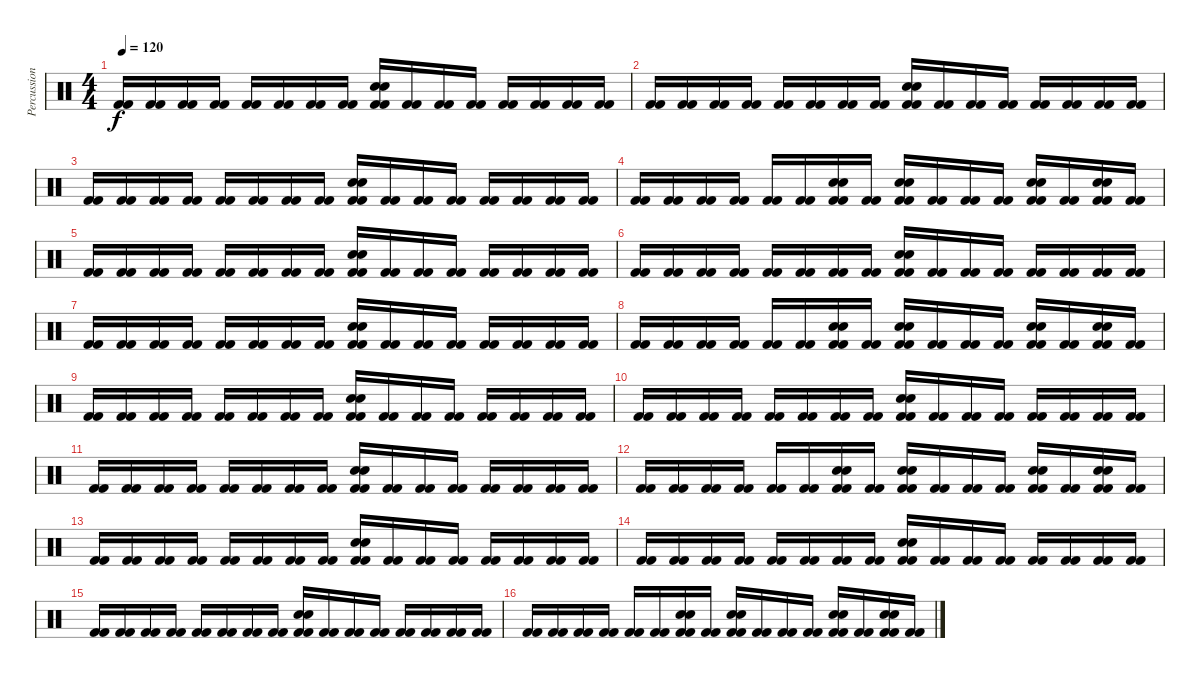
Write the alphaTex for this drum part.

\track ("Percussion" "Percussion") {instrument percussion}
\staff {score}
\articulation defaults
\ts (4 4)
\tempo 120
\clef neutral
\ks c
("Kick (hit) 2" "Kick (hit) 2").16{dy f} ("Kick (hit) 2" "Kick (hit) 2").16 ("Kick (hit) 2" "Kick (hit) 2").16 ("Kick (hit) 2" "Kick (hit) 2").16 ("Kick (hit) 2" "Kick (hit) 2").16 ("Kick (hit) 2" "Kick (hit) 2").16 ("Kick (hit) 2" "Kick (hit) 2").16 ("Kick (hit) 2" "Kick (hit) 2").16 ("Electric Snare (hit)" "Electric Snare (hit)" "Kick (hit) 2" "Kick (hit) 2").16 ("Kick (hit) 2" "Kick (hit) 2").16 ("Kick (hit) 2" "Kick (hit) 2").16 ("Kick (hit) 2" "Kick (hit) 2").16 ("Kick (hit) 2" "Kick (hit) 2").16 ("Kick (hit) 2" "Kick (hit) 2").16 ("Kick (hit) 2" "Kick (hit) 2").16 ("Kick (hit) 2" "Kick (hit) 2").16 |
("Kick (hit) 2" "Kick (hit) 2").16 ("Kick (hit) 2" "Kick (hit) 2").16 ("Kick (hit) 2" "Kick (hit) 2").16 ("Kick (hit) 2" "Kick (hit) 2").16 ("Kick (hit) 2" "Kick (hit) 2").16 ("Kick (hit) 2" "Kick (hit) 2").16 ("Kick (hit) 2" "Kick (hit) 2").16 ("Kick (hit) 2" "Kick (hit) 2").16 ("Electric Snare (hit)" "Electric Snare (hit)" "Kick (hit) 2" "Kick (hit) 2").16 ("Kick (hit) 2" "Kick (hit) 2").16 ("Kick (hit) 2" "Kick (hit) 2").16 ("Kick (hit) 2" "Kick (hit) 2").16 ("Kick (hit) 2" "Kick (hit) 2").16 ("Kick (hit) 2" "Kick (hit) 2").16 ("Kick (hit) 2" "Kick (hit) 2").16 ("Kick (hit) 2" "Kick (hit) 2").16 |
("Kick (hit) 2" "Kick (hit) 2").16 ("Kick (hit) 2" "Kick (hit) 2").16 ("Kick (hit) 2" "Kick (hit) 2").16 ("Kick (hit) 2" "Kick (hit) 2").16 ("Kick (hit) 2" "Kick (hit) 2").16 ("Kick (hit) 2" "Kick (hit) 2").16 ("Kick (hit) 2" "Kick (hit) 2").16 ("Kick (hit) 2" "Kick (hit) 2").16 ("Electric Snare (hit)" "Electric Snare (hit)" "Kick (hit) 2" "Kick (hit) 2").16 ("Kick (hit) 2" "Kick (hit) 2").16 ("Kick (hit) 2" "Kick (hit) 2").16 ("Kick (hit) 2" "Kick (hit) 2").16 ("Kick (hit) 2" "Kick (hit) 2").16 ("Kick (hit) 2" "Kick (hit) 2").16 ("Kick (hit) 2" "Kick (hit) 2").16 ("Kick (hit) 2" "Kick (hit) 2").16 |
("Kick (hit) 2" "Kick (hit) 2").16 ("Kick (hit) 2" "Kick (hit) 2").16 ("Kick (hit) 2" "Kick (hit) 2").16 ("Kick (hit) 2" "Kick (hit) 2").16 ("Kick (hit) 2" "Kick (hit) 2").16 ("Kick (hit) 2" "Kick (hit) 2").16 ("Electric Snare (hit)" "Electric Snare (hit)" "Kick (hit) 2" "Kick (hit) 2").16 ("Kick (hit) 2" "Kick (hit) 2").16 ("Electric Snare (hit)" "Electric Snare (hit)" "Kick (hit) 2" "Kick (hit) 2").16 ("Kick (hit) 2" "Kick (hit) 2").16 ("Kick (hit) 2" "Kick (hit) 2").16 ("Kick (hit) 2" "Kick (hit) 2").16 ("Electric Snare (hit)" "Electric Snare (hit)" "Kick (hit) 2" "Kick (hit) 2").16 ("Kick (hit) 2" "Kick (hit) 2").16 ("Electric Snare (hit)" "Electric Snare (hit)" "Kick (hit) 2" "Kick (hit) 2").16 ("Kick (hit) 2" "Kick (hit) 2").16 |
("Kick (hit) 2" "Kick (hit) 2").16 ("Kick (hit) 2" "Kick (hit) 2").16 ("Kick (hit) 2" "Kick (hit) 2").16 ("Kick (hit) 2" "Kick (hit) 2").16 ("Kick (hit) 2" "Kick (hit) 2").16 ("Kick (hit) 2" "Kick (hit) 2").16 ("Kick (hit) 2" "Kick (hit) 2").16 ("Kick (hit) 2" "Kick (hit) 2").16 ("Electric Snare (hit)" "Electric Snare (hit)" "Kick (hit) 2" "Kick (hit) 2").16 ("Kick (hit) 2" "Kick (hit) 2").16 ("Kick (hit) 2" "Kick (hit) 2").16 ("Kick (hit) 2" "Kick (hit) 2").16 ("Kick (hit) 2" "Kick (hit) 2").16 ("Kick (hit) 2" "Kick (hit) 2").16 ("Kick (hit) 2" "Kick (hit) 2").16 ("Kick (hit) 2" "Kick (hit) 2").16 |
("Kick (hit) 2" "Kick (hit) 2").16 ("Kick (hit) 2" "Kick (hit) 2").16 ("Kick (hit) 2" "Kick (hit) 2").16 ("Kick (hit) 2" "Kick (hit) 2").16 ("Kick (hit) 2" "Kick (hit) 2").16 ("Kick (hit) 2" "Kick (hit) 2").16 ("Kick (hit) 2" "Kick (hit) 2").16 ("Kick (hit) 2" "Kick (hit) 2").16 ("Electric Snare (hit)" "Electric Snare (hit)" "Kick (hit) 2" "Kick (hit) 2").16 ("Kick (hit) 2" "Kick (hit) 2").16 ("Kick (hit) 2" "Kick (hit) 2").16 ("Kick (hit) 2" "Kick (hit) 2").16 ("Kick (hit) 2" "Kick (hit) 2").16 ("Kick (hit) 2" "Kick (hit) 2").16 ("Kick (hit) 2" "Kick (hit) 2").16 ("Kick (hit) 2" "Kick (hit) 2").16 |
("Kick (hit) 2" "Kick (hit) 2").16 ("Kick (hit) 2" "Kick (hit) 2").16 ("Kick (hit) 2" "Kick (hit) 2").16 ("Kick (hit) 2" "Kick (hit) 2").16 ("Kick (hit) 2" "Kick (hit) 2").16 ("Kick (hit) 2" "Kick (hit) 2").16 ("Kick (hit) 2" "Kick (hit) 2").16 ("Kick (hit) 2" "Kick (hit) 2").16 ("Electric Snare (hit)" "Electric Snare (hit)" "Kick (hit) 2" "Kick (hit) 2").16 ("Kick (hit) 2" "Kick (hit) 2").16 ("Kick (hit) 2" "Kick (hit) 2").16 ("Kick (hit) 2" "Kick (hit) 2").16 ("Kick (hit) 2" "Kick (hit) 2").16 ("Kick (hit) 2" "Kick (hit) 2").16 ("Kick (hit) 2" "Kick (hit) 2").16 ("Kick (hit) 2" "Kick (hit) 2").16 |
("Kick (hit) 2" "Kick (hit) 2").16 ("Kick (hit) 2" "Kick (hit) 2").16 ("Kick (hit) 2" "Kick (hit) 2").16 ("Kick (hit) 2" "Kick (hit) 2").16 ("Kick (hit) 2" "Kick (hit) 2").16 ("Kick (hit) 2" "Kick (hit) 2").16 ("Electric Snare (hit)" "Electric Snare (hit)" "Kick (hit) 2" "Kick (hit) 2").16 ("Kick (hit) 2" "Kick (hit) 2").16 ("Electric Snare (hit)" "Electric Snare (hit)" "Kick (hit) 2" "Kick (hit) 2").16 ("Kick (hit) 2" "Kick (hit) 2").16 ("Kick (hit) 2" "Kick (hit) 2").16 ("Kick (hit) 2" "Kick (hit) 2").16 ("Electric Snare (hit)" "Electric Snare (hit)" "Kick (hit) 2" "Kick (hit) 2").16 ("Kick (hit) 2" "Kick (hit) 2").16 ("Electric Snare (hit)" "Electric Snare (hit)" "Kick (hit) 2" "Kick (hit) 2").16 ("Kick (hit) 2" "Kick (hit) 2").16 |
("Kick (hit) 2" "Kick (hit) 2").16 ("Kick (hit) 2" "Kick (hit) 2").16 ("Kick (hit) 2" "Kick (hit) 2").16 ("Kick (hit) 2" "Kick (hit) 2").16 ("Kick (hit) 2" "Kick (hit) 2").16 ("Kick (hit) 2" "Kick (hit) 2").16 ("Kick (hit) 2" "Kick (hit) 2").16 ("Kick (hit) 2" "Kick (hit) 2").16 ("Electric Snare (hit)" "Electric Snare (hit)" "Kick (hit) 2" "Kick (hit) 2").16 ("Kick (hit) 2" "Kick (hit) 2").16 ("Kick (hit) 2" "Kick (hit) 2").16 ("Kick (hit) 2" "Kick (hit) 2").16 ("Kick (hit) 2" "Kick (hit) 2").16 ("Kick (hit) 2" "Kick (hit) 2").16 ("Kick (hit) 2" "Kick (hit) 2").16 ("Kick (hit) 2" "Kick (hit) 2").16 |
("Kick (hit) 2" "Kick (hit) 2").16 ("Kick (hit) 2" "Kick (hit) 2").16 ("Kick (hit) 2" "Kick (hit) 2").16 ("Kick (hit) 2" "Kick (hit) 2").16 ("Kick (hit) 2" "Kick (hit) 2").16 ("Kick (hit) 2" "Kick (hit) 2").16 ("Kick (hit) 2" "Kick (hit) 2").16 ("Kick (hit) 2" "Kick (hit) 2").16 ("Electric Snare (hit)" "Electric Snare (hit)" "Kick (hit) 2" "Kick (hit) 2").16 ("Kick (hit) 2" "Kick (hit) 2").16 ("Kick (hit) 2" "Kick (hit) 2").16 ("Kick (hit) 2" "Kick (hit) 2").16 ("Kick (hit) 2" "Kick (hit) 2").16 ("Kick (hit) 2" "Kick (hit) 2").16 ("Kick (hit) 2" "Kick (hit) 2").16 ("Kick (hit) 2" "Kick (hit) 2").16 |
("Kick (hit) 2" "Kick (hit) 2").16 ("Kick (hit) 2" "Kick (hit) 2").16 ("Kick (hit) 2" "Kick (hit) 2").16 ("Kick (hit) 2" "Kick (hit) 2").16 ("Kick (hit) 2" "Kick (hit) 2").16 ("Kick (hit) 2" "Kick (hit) 2").16 ("Kick (hit) 2" "Kick (hit) 2").16 ("Kick (hit) 2" "Kick (hit) 2").16 ("Electric Snare (hit)" "Electric Snare (hit)" "Kick (hit) 2" "Kick (hit) 2").16 ("Kick (hit) 2" "Kick (hit) 2").16 ("Kick (hit) 2" "Kick (hit) 2").16 ("Kick (hit) 2" "Kick (hit) 2").16 ("Kick (hit) 2" "Kick (hit) 2").16 ("Kick (hit) 2" "Kick (hit) 2").16 ("Kick (hit) 2" "Kick (hit) 2").16 ("Kick (hit) 2" "Kick (hit) 2").16 |
("Kick (hit) 2" "Kick (hit) 2").16 ("Kick (hit) 2" "Kick (hit) 2").16 ("Kick (hit) 2" "Kick (hit) 2").16 ("Kick (hit) 2" "Kick (hit) 2").16 ("Kick (hit) 2" "Kick (hit) 2").16 ("Kick (hit) 2" "Kick (hit) 2").16 ("Electric Snare (hit)" "Electric Snare (hit)" "Kick (hit) 2" "Kick (hit) 2").16 ("Kick (hit) 2" "Kick (hit) 2").16 ("Electric Snare (hit)" "Electric Snare (hit)" "Kick (hit) 2" "Kick (hit) 2").16 ("Kick (hit) 2" "Kick (hit) 2").16 ("Kick (hit) 2" "Kick (hit) 2").16 ("Kick (hit) 2" "Kick (hit) 2").16 ("Electric Snare (hit)" "Electric Snare (hit)" "Kick (hit) 2" "Kick (hit) 2").16 ("Kick (hit) 2" "Kick (hit) 2").16 ("Electric Snare (hit)" "Electric Snare (hit)" "Kick (hit) 2" "Kick (hit) 2").16 ("Kick (hit) 2" "Kick (hit) 2").16 |
("Kick (hit) 2" "Kick (hit) 2").16 ("Kick (hit) 2" "Kick (hit) 2").16 ("Kick (hit) 2" "Kick (hit) 2").16 ("Kick (hit) 2" "Kick (hit) 2").16 ("Kick (hit) 2" "Kick (hit) 2").16 ("Kick (hit) 2" "Kick (hit) 2").16 ("Kick (hit) 2" "Kick (hit) 2").16 ("Kick (hit) 2" "Kick (hit) 2").16 ("Electric Snare (hit)" "Electric Snare (hit)" "Kick (hit) 2" "Kick (hit) 2").16 ("Kick (hit) 2" "Kick (hit) 2").16 ("Kick (hit) 2" "Kick (hit) 2").16 ("Kick (hit) 2" "Kick (hit) 2").16 ("Kick (hit) 2" "Kick (hit) 2").16 ("Kick (hit) 2" "Kick (hit) 2").16 ("Kick (hit) 2" "Kick (hit) 2").16 ("Kick (hit) 2" "Kick (hit) 2").16 |
("Kick (hit) 2" "Kick (hit) 2").16 ("Kick (hit) 2" "Kick (hit) 2").16 ("Kick (hit) 2" "Kick (hit) 2").16 ("Kick (hit) 2" "Kick (hit) 2").16 ("Kick (hit) 2" "Kick (hit) 2").16 ("Kick (hit) 2" "Kick (hit) 2").16 ("Kick (hit) 2" "Kick (hit) 2").16 ("Kick (hit) 2" "Kick (hit) 2").16 ("Electric Snare (hit)" "Electric Snare (hit)" "Kick (hit) 2" "Kick (hit) 2").16 ("Kick (hit) 2" "Kick (hit) 2").16 ("Kick (hit) 2" "Kick (hit) 2").16 ("Kick (hit) 2" "Kick (hit) 2").16 ("Kick (hit) 2" "Kick (hit) 2").16 ("Kick (hit) 2" "Kick (hit) 2").16 ("Kick (hit) 2" "Kick (hit) 2").16 ("Kick (hit) 2" "Kick (hit) 2").16 |
("Kick (hit) 2" "Kick (hit) 2").16 ("Kick (hit) 2" "Kick (hit) 2").16 ("Kick (hit) 2" "Kick (hit) 2").16 ("Kick (hit) 2" "Kick (hit) 2").16 ("Kick (hit) 2" "Kick (hit) 2").16 ("Kick (hit) 2" "Kick (hit) 2").16 ("Kick (hit) 2" "Kick (hit) 2").16 ("Kick (hit) 2" "Kick (hit) 2").16 ("Electric Snare (hit)" "Electric Snare (hit)" "Kick (hit) 2" "Kick (hit) 2").16 ("Kick (hit) 2" "Kick (hit) 2").16 ("Kick (hit) 2" "Kick (hit) 2").16 ("Kick (hit) 2" "Kick (hit) 2").16 ("Kick (hit) 2" "Kick (hit) 2").16 ("Kick (hit) 2" "Kick (hit) 2").16 ("Kick (hit) 2" "Kick (hit) 2").16 ("Kick (hit) 2" "Kick (hit) 2").16 |
("Kick (hit) 2" "Kick (hit) 2").16 ("Kick (hit) 2" "Kick (hit) 2").16 ("Kick (hit) 2" "Kick (hit) 2").16 ("Kick (hit) 2" "Kick (hit) 2").16 ("Kick (hit) 2" "Kick (hit) 2").16 ("Kick (hit) 2" "Kick (hit) 2").16 ("Electric Snare (hit)" "Electric Snare (hit)" "Kick (hit) 2" "Kick (hit) 2").16 ("Kick (hit) 2" "Kick (hit) 2").16 ("Electric Snare (hit)" "Electric Snare (hit)" "Kick (hit) 2" "Kick (hit) 2").16 ("Kick (hit) 2" "Kick (hit) 2").16 ("Kick (hit) 2" "Kick (hit) 2").16 ("Kick (hit) 2" "Kick (hit) 2").16 ("Electric Snare (hit)" "Electric Snare (hit)" "Kick (hit) 2" "Kick (hit) 2").16 ("Kick (hit) 2" "Kick (hit) 2").16 ("Electric Snare (hit)" "Electric Snare (hit)" "Kick (hit) 2" "Kick (hit) 2").16 ("Kick (hit) 2" "Kick (hit) 2").16
